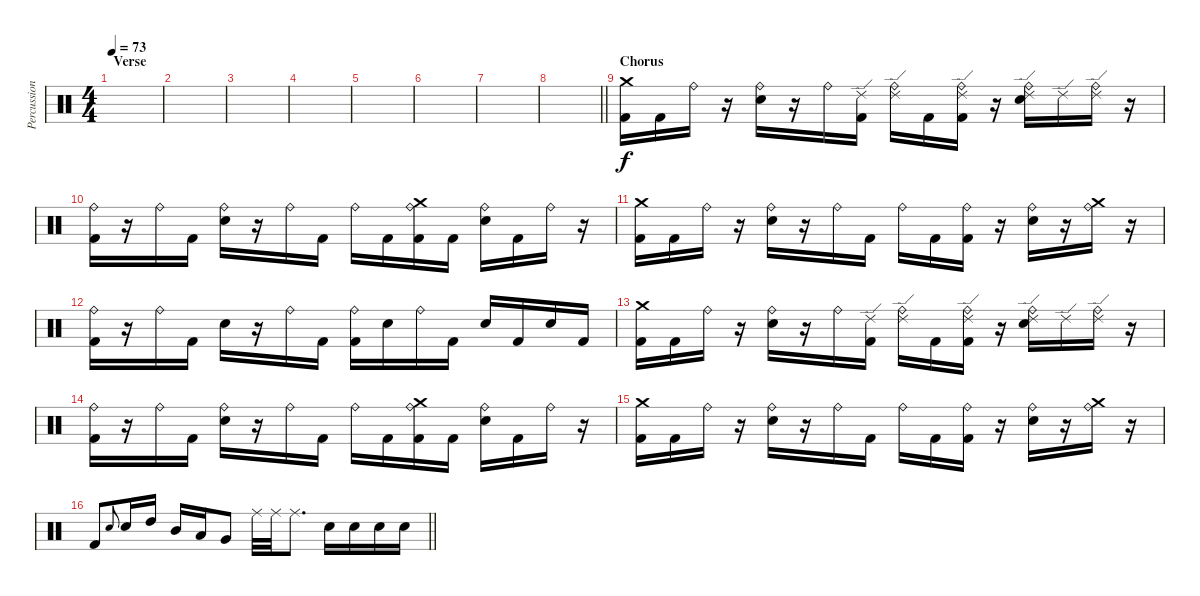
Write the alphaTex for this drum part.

\track ("Percussion" "Percussion") {instrument percussion}
\staff {score}
\articulation defaults
\ts (4 4)
\section ("" "Verse")
\tempo 73
\clef neutral
\ks c
|
|
|
|
|
|
|
\barLineRight lightlight
|
\section ("" "Chorus")
("Crash medium (hit)" "Kick (hit) 2").16 "Kick (hit) 2".16 "Ride (bell)".16 r.16 ("Ride (bell)" "Snare (hit) 2").16 r.16 "Ride (bell)".16 ("Ride (edge) 2" "Kick (hit) 2").16 ("Ride (edge) 2" "Ride (bell)").16 "Kick (hit) 2".16 ("Ride (edge) 2" "Ride (bell)" "Kick (hit) 2").16 r.16 ("Ride (edge) 2" "Ride (bell)" "Snare (hit) 2").16 "Ride (edge) 2".16 ("Ride (edge) 2" "Ride (bell)").16 r.16 |
("Ride (bell)" "Kick (hit) 2").16 r.16 "Ride (bell)".16 "Kick (hit) 2".16 ("Ride (bell)" "Snare (hit) 2").16 r.16 "Ride (bell)".16 "Kick (hit) 2".16 "Ride (bell)".16 "Kick (hit) 2".16 ("Crash medium (hit)" "Ride (bell)" "Kick (hit) 2").16 "Kick (hit) 2".16 ("Ride (bell)" "Snare (hit) 2").16 "Kick (hit) 2".16 "Ride (bell)".16 r.16 |
("Crash medium (hit)" "Kick (hit) 2").16 "Kick (hit) 2".16 "Ride (bell)".16 r.16 ("Ride (bell)" "Snare (hit) 2").16 r.16 "Ride (bell)".16 "Kick (hit) 2".16 "Ride (bell)".16 "Kick (hit) 2".16 ("Ride (bell)" "Kick (hit) 2").16 r.16 ("Ride (bell)" "Snare (hit) 2").16 r.16 ("Crash medium (hit)" "Ride (bell)").16 r.16 |
("Ride (bell)" "Kick (hit) 2").16 r.16 "Ride (bell)".16 "Kick (hit) 2".16 "Snare (hit) 2".16 r.16 "Ride (bell)".16 "Kick (hit) 2".16 ("Ride (bell)" "Kick (hit) 2").16 "Snare (hit) 2".16 "Ride (bell)".16 "Kick (hit) 2".16 "Snare (hit) 2".16 "Kick (hit) 2".16 "Snare (hit) 2".16 "Kick (hit) 2".16 |
("Crash medium (hit)" "Kick (hit) 2").16 "Kick (hit) 2".16 "Ride (bell)".16 r.16 ("Ride (bell)" "Snare (hit) 2").16 r.16 "Ride (bell)".16 ("Ride (edge) 2" "Kick (hit) 2").16 ("Ride (edge) 2" "Ride (bell)").16 "Kick (hit) 2".16 ("Ride (edge) 2" "Ride (bell)" "Kick (hit) 2").16 r.16 ("Ride (edge) 2" "Ride (bell)" "Snare (hit) 2").16 "Ride (edge) 2".16 ("Ride (edge) 2" "Ride (bell)").16 r.16 |
("Ride (bell)" "Kick (hit) 2").16 r.16 "Ride (bell)".16 "Kick (hit) 2".16 ("Ride (bell)" "Snare (hit) 2").16 r.16 "Ride (bell)".16 "Kick (hit) 2".16 "Ride (bell)".16 "Kick (hit) 2".16 ("Crash medium (hit)" "Ride (bell)" "Kick (hit) 2").16 "Kick (hit) 2".16 ("Ride (bell)" "Snare (hit) 2").16 "Kick (hit) 2".16 "Ride (bell)".16 r.16 |
("Crash medium (hit)" "Kick (hit) 2").16 "Kick (hit) 2".16 "Ride (bell)".16 r.16 ("Ride (bell)" "Snare (hit) 2").16 r.16 "Ride (bell)".16 "Kick (hit) 2".16 "Ride (bell)".16 "Kick (hit) 2".16 ("Ride (bell)" "Kick (hit) 2").16 r.16 ("Ride (bell)" "Snare (hit) 2").16 r.16 ("Crash medium (hit)" "Ride (bell)").16 r.16 |
\barLineRight lightlight "Kick (hit) 2".8 "Snare (hit) 2".8{gr onbeat} "Snare (hit) 2".16 "High Tom (hit)".16 "Mid Tom (hit)".16 "Low Tom (hit)".16 "Very Low Tom (hit)".8 "Ride (middle)".32 "Ride (middle)".32 "Ride (middle)".8{d} "Snare (hit) 2".16 "Snare (hit) 2".16 "Snare (hit) 2".16 "Snare (hit) 2".16
